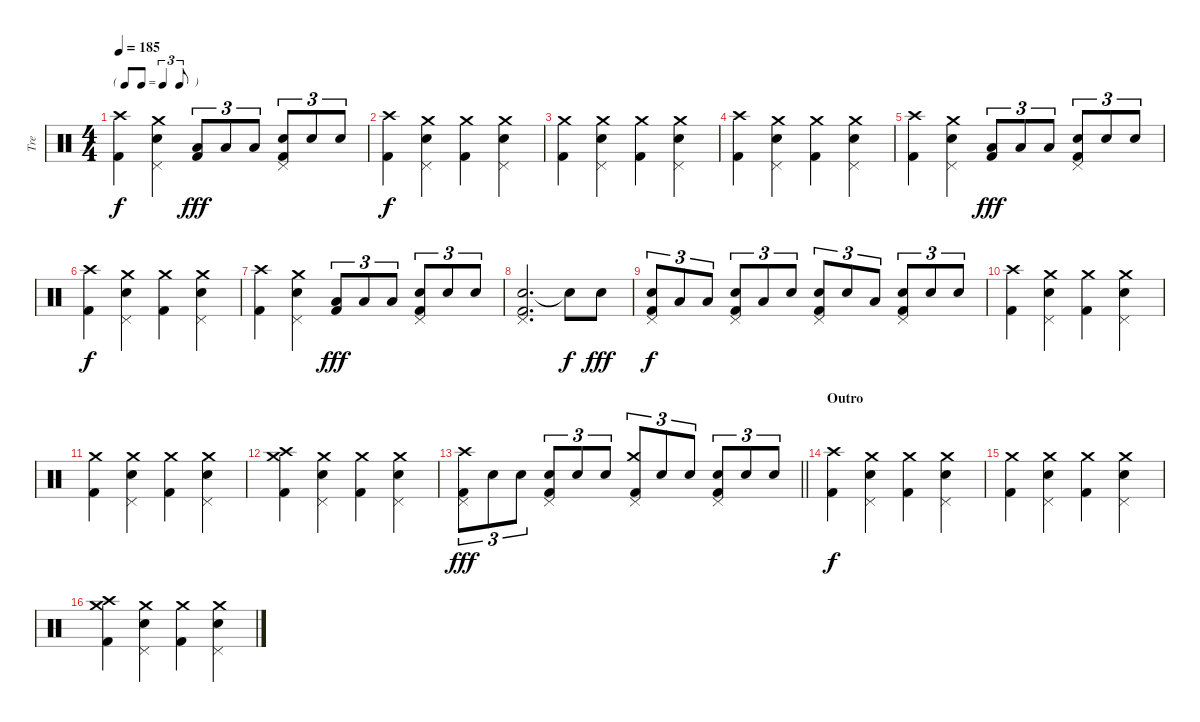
\track ("Tre" "Tre") {instrument percussion}
\staff {score}
\articulation defaults
\ts (4 4)
\tf triplet8th
\tempo 185
\clef neutral
\ks c
("Crash high (hit)" "Kick (hit) 2").4{dy f} ("Crash medium (hit)" "Snare (hit) 2" "Pedal Hi-Hat (hit)").4 ("Low Tom (hit)" "Kick (hit) 2").8{tu (3 2) dy fff} "Low Tom (hit)".8{tu (3 2)} "Low Tom (hit)".8{tu (3 2)} ("Snare (hit) 2" "Pedal Hi-Hat (hit)" "Kick (hit) 2").8{tu (3 2)} "Snare (hit) 2".8{tu (3 2)} "Snare (hit) 2".8{tu (3 2)} |
("Crash high (hit)" "Kick (hit) 2").4{dy f} ("Crash medium (hit)" "Snare (hit) 2" "Pedal Hi-Hat (hit)").4 ("Crash medium (hit)" "Kick (hit) 2").4 ("Crash medium (hit)" "Snare (hit) 2" "Pedal Hi-Hat (hit)").4 |
("Crash medium (hit)" "Kick (hit) 2").4 ("Crash medium (hit)" "Snare (hit) 2" "Pedal Hi-Hat (hit)").4 ("Crash medium (hit)" "Kick (hit) 2").4 ("Crash medium (hit)" "Snare (hit) 2" "Pedal Hi-Hat (hit)").4 |
("Crash high (hit)" "Kick (hit) 2").4 ("Crash medium (hit)" "Snare (hit) 2" "Pedal Hi-Hat (hit)").4 ("Crash medium (hit)" "Kick (hit) 2").4 ("Crash medium (hit)" "Snare (hit) 2" "Pedal Hi-Hat (hit)").4 |
("Crash high (hit)" "Kick (hit) 2").4 ("Crash medium (hit)" "Snare (hit) 2" "Pedal Hi-Hat (hit)").4 ("Low Tom (hit)" "Kick (hit) 2").8{tu (3 2) dy fff} "Low Tom (hit)".8{tu (3 2)} "Low Tom (hit)".8{tu (3 2)} ("Snare (hit) 2" "Pedal Hi-Hat (hit)" "Kick (hit) 2").8{tu (3 2)} "Snare (hit) 2".8{tu (3 2)} "Snare (hit) 2".8{tu (3 2)} |
("Crash high (hit)" "Kick (hit) 2").4{dy f} ("Crash medium (hit)" "Snare (hit) 2" "Pedal Hi-Hat (hit)").4 ("Crash medium (hit)" "Kick (hit) 2").4 ("Crash medium (hit)" "Snare (hit) 2" "Pedal Hi-Hat (hit)").4 |
("Crash high (hit)" "Kick (hit) 2").4 ("Crash medium (hit)" "Snare (hit) 2" "Pedal Hi-Hat (hit)").4 ("Low Tom (hit)" "Kick (hit) 2").8{tu (3 2) dy fff} "Low Tom (hit)".8{tu (3 2)} "Low Tom (hit)".8{tu (3 2)} ("Snare (hit) 2" "Pedal Hi-Hat (hit)" "Kick (hit) 2").8{tu (3 2)} "Snare (hit) 2".8{tu (3 2)} "Snare (hit) 2".8{tu (3 2)} |
("Snare (hit) 2" "Pedal Hi-Hat (hit)" "Kick (hit) 2").2{d} "Snare (hit)"{t}.8{dy f} "Snare (hit) 2".8{dy fff} |
("Snare (hit) 2" "Pedal Hi-Hat (hit)" "Kick (hit) 2").8{tu (3 2) dy f} "Low Tom (hit)".8{tu (3 2)} "Low Tom (hit)".8{tu (3 2)} ("Snare (hit) 2" "Pedal Hi-Hat (hit)" "Kick (hit) 2").8{tu (3 2)} "Low Tom (hit)".8{tu (3 2)} "Snare (hit) 2".8{tu (3 2)} ("Snare (hit) 2" "Pedal Hi-Hat (hit)" "Kick (hit) 2").8{tu (3 2)} "Snare (hit) 2".8{tu (3 2)} "Low Tom (hit)".8{tu (3 2)} ("Snare (hit) 2" "Pedal Hi-Hat (hit)" "Kick (hit) 2").8{tu (3 2)} "Snare (hit) 2".8{tu (3 2)} "Snare (hit) 2".8{tu (3 2)} |
("Crash high (hit)" "Kick (hit) 2").4 ("Crash medium (hit)" "Snare (hit) 2" "Pedal Hi-Hat (hit)").4 ("Crash medium (hit)" "Kick (hit) 2").4 ("Crash medium (hit)" "Snare (hit) 2" "Pedal Hi-Hat (hit)").4 |
("Crash medium (hit)" "Kick (hit) 2").4 ("Crash medium (hit)" "Snare (hit) 2" "Pedal Hi-Hat (hit)").4 ("Crash medium (hit)" "Kick (hit) 2").4 ("Crash medium (hit)" "Snare (hit) 2" "Pedal Hi-Hat (hit)").4 |
("Crash medium (hit)" "Crash high (hit)" "Kick (hit) 2").4 ("Crash medium (hit)" "Snare (hit) 2" "Pedal Hi-Hat (hit)").4 ("Crash medium (hit)" "Kick (hit) 2").4 ("Crash medium (hit)" "Snare (hit) 2" "Pedal Hi-Hat (hit)").4 |
\barLineRight lightlight
("Crash high (hit)" "Pedal Hi-Hat (hit)" "Kick (hit) 2").8{tu (3 2) dy fff} "Snare (hit) 2".8{tu (3 2)} "Snare (hit) 2".8{tu (3 2)} ("Snare (hit) 2" "Pedal Hi-Hat (hit)" "Kick (hit) 2").8{tu (3 2)} "Snare (hit) 2".8{tu (3 2)} "Snare (hit) 2".8{tu (3 2)} ("Crash medium (hit)" "Pedal Hi-Hat (hit)" "Kick (hit) 2").8{tu (3 2)} "Snare (hit) 2".8{tu (3 2)} "Snare (hit) 2".8{tu (3 2)} ("Snare (hit) 2" "Pedal Hi-Hat (hit)" "Kick (hit) 2").8{tu (3 2)} "Snare (hit) 2".8{tu (3 2)} "Snare (hit) 2".8{tu (3 2)} |
\section ("" "Outro")
("Crash high (hit)" "Kick (hit) 2").4{dy f} ("Crash medium (hit)" "Snare (hit) 2" "Pedal Hi-Hat (hit)").4 ("Crash medium (hit)" "Kick (hit) 2").4 ("Crash medium (hit)" "Snare (hit) 2" "Pedal Hi-Hat (hit)").4 |
("Crash medium (hit)" "Kick (hit) 2").4 ("Crash medium (hit)" "Snare (hit) 2" "Pedal Hi-Hat (hit)").4 ("Crash medium (hit)" "Kick (hit) 2").4 ("Crash medium (hit)" "Snare (hit) 2" "Pedal Hi-Hat (hit)").4 |
("Crash medium (hit)" "Crash high (hit)" "Kick (hit) 2").4 ("Crash medium (hit)" "Snare (hit) 2" "Pedal Hi-Hat (hit)").4 ("Crash medium (hit)" "Kick (hit) 2").4 ("Crash medium (hit)" "Snare (hit) 2" "Pedal Hi-Hat (hit)").4
